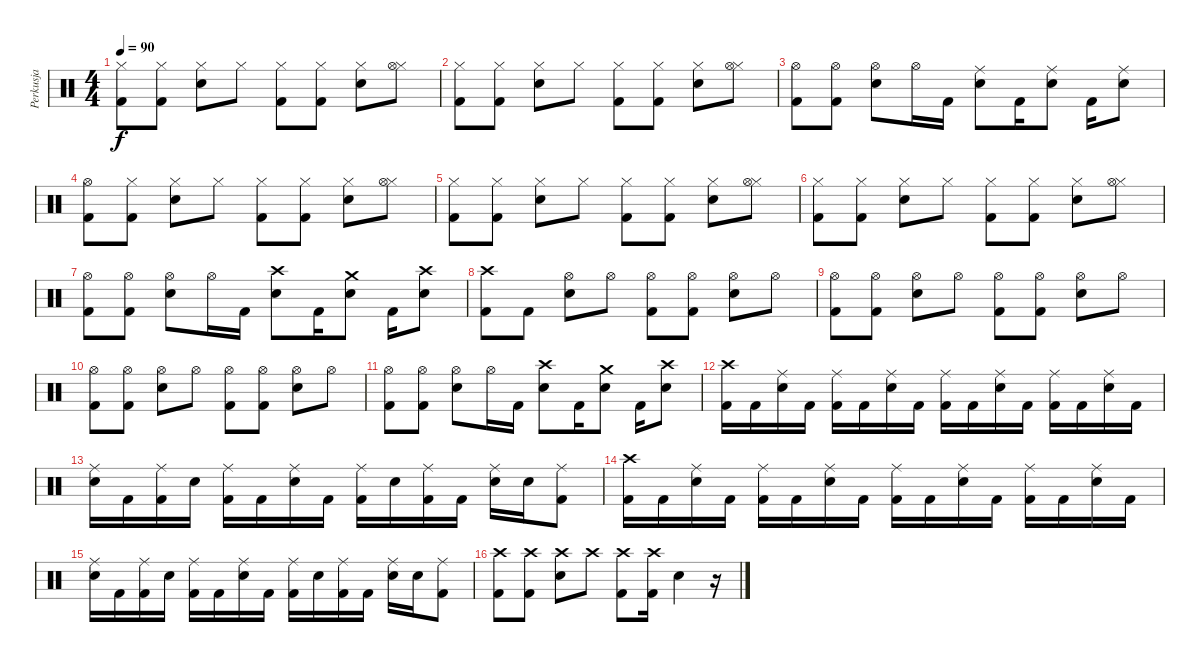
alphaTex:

\track ("Perkusja" "Perkusja") {instrument percussion}
\staff {score}
\articulation defaults
\ts (4 4)
\tempo 90
\clef neutral
\ks c
("Hi-Hat (closed)" "Kick (hit) 2").8{dy f} ("Hi-Hat (closed)" "Kick (hit) 2").8 ("Hi-Hat (closed)" "Electric Snare (hit)").8 "Hi-Hat (closed)".8 ("Hi-Hat (closed)" "Kick (hit) 2").8 ("Hi-Hat (closed)" "Kick (hit) 2").8 ("Hi-Hat (closed)" "Electric Snare (hit)").8 ("Hi-Hat (closed)" "Hi-Hat (open)").8 |
("Hi-Hat (closed)" "Kick (hit) 2").8 ("Hi-Hat (closed)" "Kick (hit) 2").8 ("Hi-Hat (closed)" "Electric Snare (hit)").8 "Hi-Hat (closed)".8 ("Hi-Hat (closed)" "Kick (hit) 2").8 ("Hi-Hat (closed)" "Kick (hit) 2").8 ("Hi-Hat (closed)" "Electric Snare (hit)").8 ("Hi-Hat (closed)" "Hi-Hat (open)").8 |
("Hi-Hat (open)" "Kick (hit) 2").8 ("Hi-Hat (open)" "Kick (hit) 2").8 ("Hi-Hat (open)" "Electric Snare (hit)").8 "Hi-Hat (open)".16 "Kick (hit) 2".16 ("Ride (middle)" "Electric Snare (hit)").8 "Kick (hit) 2".16 ("Ride (middle)" "Electric Snare (hit)").8 "Kick (hit) 2".16 ("Ride (middle)" "Electric Snare (hit)").8 |
("Hi-Hat (open)" "Kick (hit) 2").8 ("Hi-Hat (closed)" "Kick (hit) 2").8 ("Hi-Hat (closed)" "Electric Snare (hit)").8 "Hi-Hat (closed)".8 ("Hi-Hat (closed)" "Kick (hit) 2").8 ("Hi-Hat (closed)" "Kick (hit) 2").8 ("Hi-Hat (closed)" "Electric Snare (hit)").8 ("Hi-Hat (closed)" "Hi-Hat (open)").8 |
("Hi-Hat (closed)" "Kick (hit) 2").8 ("Hi-Hat (closed)" "Kick (hit) 2").8 ("Hi-Hat (closed)" "Electric Snare (hit)").8 "Hi-Hat (closed)".8 ("Hi-Hat (closed)" "Kick (hit) 2").8 ("Hi-Hat (closed)" "Kick (hit) 2").8 ("Hi-Hat (closed)" "Electric Snare (hit)").8 ("Hi-Hat (closed)" "Hi-Hat (open)").8 |
("Hi-Hat (closed)" "Kick (hit) 2").8 ("Hi-Hat (closed)" "Kick (hit) 2").8 ("Hi-Hat (closed)" "Electric Snare (hit)").8 "Hi-Hat (closed)".8 ("Hi-Hat (closed)" "Kick (hit) 2").8 ("Hi-Hat (closed)" "Kick (hit) 2").8 ("Hi-Hat (closed)" "Electric Snare (hit)").8 ("Hi-Hat (closed)" "Hi-Hat (open)").8 |
("Hi-Hat (open)" "Kick (hit) 2").8 ("Hi-Hat (open)" "Kick (hit) 2").8 ("Hi-Hat (open)" "Electric Snare (hit)").8 "Hi-Hat (open)".16 "Kick (hit) 2".16 ("Crash high (hit)" "Electric Snare (hit)").8 "Kick (hit) 2".16 ("Crash medium (hit)" "Electric Snare (hit)").8 "Kick (hit) 2".16 ("Crash high (hit)" "Electric Snare (hit)").8 |
("Crash high (hit)" "Kick (hit) 2").8 "Kick (hit) 2".8 ("Hi-Hat (open)" "Electric Snare (hit)").8 "Hi-Hat (open)".8 ("Hi-Hat (open)" "Kick (hit) 2").8 ("Hi-Hat (open)" "Kick (hit) 2").8 ("Hi-Hat (open)" "Electric Snare (hit)").8 "Hi-Hat (open)".8 |
("Hi-Hat (open)" "Kick (hit) 2").8 ("Hi-Hat (open)" "Kick (hit) 2").8 ("Hi-Hat (open)" "Electric Snare (hit)").8 "Hi-Hat (open)".8 ("Hi-Hat (open)" "Kick (hit) 2").8 ("Hi-Hat (open)" "Kick (hit) 2").8 ("Hi-Hat (open)" "Electric Snare (hit)").8 "Hi-Hat (open)".8 |
("Hi-Hat (open)" "Kick (hit) 2").8 ("Hi-Hat (open)" "Kick (hit) 2").8 ("Hi-Hat (open)" "Electric Snare (hit)").8 "Hi-Hat (open)".8 ("Hi-Hat (open)" "Kick (hit) 2").8 ("Hi-Hat (open)" "Kick (hit) 2").8 ("Hi-Hat (open)" "Electric Snare (hit)").8 "Hi-Hat (open)".8 |
("Hi-Hat (open)" "Kick (hit) 2").8 ("Hi-Hat (open)" "Kick (hit) 2").8 ("Hi-Hat (open)" "Electric Snare (hit)").8 "Hi-Hat (open)".16 "Kick (hit) 2".16 ("Crash high (hit)" "Electric Snare (hit)").8 "Kick (hit) 2".16 ("Crash medium (hit)" "Electric Snare (hit)").8 "Kick (hit) 2".16 ("Crash high (hit)" "Electric Snare (hit)").8 |
("Crash high (hit)" "Kick (hit) 2").16 "Kick (hit) 2".16 ("Ride (middle)" "Electric Snare (hit)").16 "Kick (hit) 2".16 ("Ride (middle)" "Kick (hit) 2").16 "Kick (hit) 2".16 ("Ride (middle)" "Electric Snare (hit)").16 "Kick (hit) 2".16 ("Ride (middle)" "Kick (hit) 2").16 "Kick (hit) 2".16 ("Ride (middle)" "Electric Snare (hit)").16 "Kick (hit) 2".16 ("Ride (middle)" "Kick (hit) 2").16 "Kick (hit) 2".16 ("Ride (middle)" "Electric Snare (hit)").16 "Kick (hit) 2".16 |
("Ride (middle)" "Electric Snare (hit)").16 "Kick (hit) 2".16 ("Ride (middle)" "Kick (hit) 2").16 "Electric Snare (hit)".16 ("Ride (middle)" "Kick (hit) 2").16 "Kick (hit) 2".16 ("Ride (middle)" "Electric Snare (hit)").16 "Kick (hit) 2".16 ("Ride (middle)" "Kick (hit) 2").16 "Electric Snare (hit)".16 ("Ride (middle)" "Kick (hit) 2").16 "Kick (hit) 2".16 ("Ride (middle)" "Electric Snare (hit)").16 "Electric Snare (hit)".16 ("Ride (middle)" "Kick (hit) 2").8 |
("Crash high (hit)" "Kick (hit) 2").16 "Kick (hit) 2".16 ("Ride (middle)" "Electric Snare (hit)").16 "Kick (hit) 2".16 ("Ride (middle)" "Kick (hit) 2").16 "Kick (hit) 2".16 ("Ride (middle)" "Electric Snare (hit)").16 "Kick (hit) 2".16 ("Ride (middle)" "Kick (hit) 2").16 "Kick (hit) 2".16 ("Ride (middle)" "Electric Snare (hit)").16 "Kick (hit) 2".16 ("Ride (middle)" "Kick (hit) 2").16 "Kick (hit) 2".16 ("Ride (middle)" "Electric Snare (hit)").16 "Kick (hit) 2".16 |
("Ride (middle)" "Electric Snare (hit)").16 "Kick (hit) 2".16 ("Ride (middle)" "Kick (hit) 2").16 "Electric Snare (hit)".16 ("Ride (middle)" "Kick (hit) 2").16 "Kick (hit) 2".16 ("Ride (middle)" "Electric Snare (hit)").16 "Kick (hit) 2".16 ("Ride (middle)" "Kick (hit) 2").16 "Electric Snare (hit)".16 ("Ride (middle)" "Kick (hit) 2").16 "Kick (hit) 2".16 ("Ride (middle)" "Electric Snare (hit)").16 "Electric Snare (hit)".16 ("Ride (middle)" "Kick (hit) 2").8 |
("Crash high (hit)" "Kick (hit) 2").8 ("Crash high (hit)" "Kick (hit) 2").8 ("Crash high (hit)" "Electric Snare (hit)").8 "Crash high (hit)".8 ("Crash high (hit)" "Kick (hit) 2").8 ("Crash high (hit)" "Kick (hit) 2").16 "Electric Snare (hit)".4 r.16
